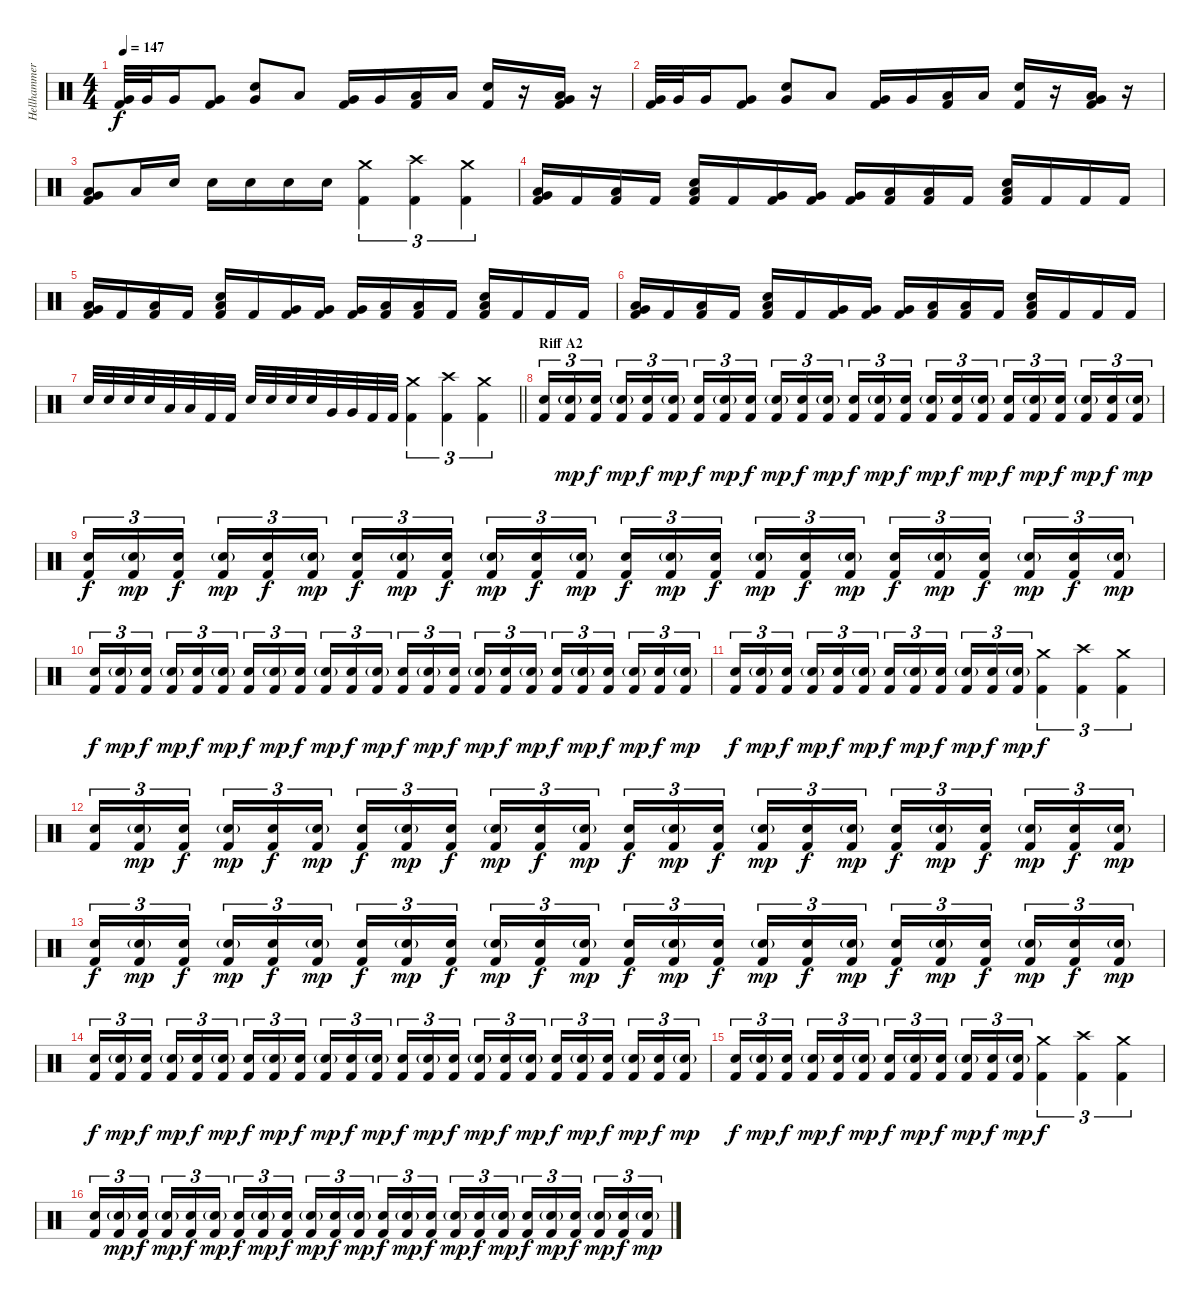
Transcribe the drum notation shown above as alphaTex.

\track ("Hellhammer" "Hellhammer") {instrument percussion}
\staff {score}
\articulation defaults
\ts (4 4)
\tempo 147
\clef neutral
\ks c
("Very Low Tom (hit)" "Kick (hit) 2").32{dy f} "Very Low Tom (hit)".32 "Very Low Tom (hit)".16 ("Very Low Tom (hit)" "Kick (hit) 2").8 ("Very Low Tom (hit)" "Electric Snare (hit)").8 "Low Floor Tom (hit)".8 ("Very Low Tom (hit)" "Kick (hit) 2").16 "Very Low Tom (hit)".16 ("Low Floor Tom (hit)" "Kick (hit) 2").16 "Low Floor Tom (hit)".16 ("Electric Snare (hit)" "Kick (hit) 2").16 r.16 ("Very Low Tom (hit)" "Low Floor Tom (hit)" "Kick (hit) 2").16 r.16 |
("Very Low Tom (hit)" "Kick (hit) 2").32 "Very Low Tom (hit)".32 "Very Low Tom (hit)".16 ("Very Low Tom (hit)" "Kick (hit) 2").8 ("Very Low Tom (hit)" "Electric Snare (hit)").8 "Low Floor Tom (hit)".8 ("Very Low Tom (hit)" "Kick (hit) 2").16 "Very Low Tom (hit)".16 ("Low Floor Tom (hit)" "Kick (hit) 2").16 "Low Floor Tom (hit)".16 ("Electric Snare (hit)" "Kick (hit) 2").16 r.16 ("Very Low Tom (hit)" "Low Floor Tom (hit)" "Kick (hit) 2").16 r.16 |
("Very Low Tom (hit)" "Low Floor Tom (hit)" "Kick (hit) 2").8 "Low Floor Tom (hit)".16 "Electric Snare (hit)".16 "Electric Snare (hit)".16 "Electric Snare (hit)".16 "Electric Snare (hit)".16 "Electric Snare (hit)".16 ("Crash medium (hit)" "Kick (hit) 2").4{tu (3 2)} ("Crash high (hit)" "Kick (hit) 2").4{tu (3 2)} ("Crash medium (hit)" "Kick (hit) 2").4{tu (3 2)} |
("Very Low Tom (hit)" "Low Floor Tom (hit)" "Kick (hit) 2").16 "Kick (hit) 2".16 ("Low Floor Tom (hit)" "Kick (hit) 2").16 "Kick (hit) 2".16 ("Low Floor Tom (hit)" "Electric Snare (hit)" "Kick (hit) 2").16 "Kick (hit) 2".16 ("Very Low Tom (hit)" "Kick (hit) 2").16 ("Very Low Tom (hit)" "Kick (hit) 2").16 ("Very Low Tom (hit)" "Kick (hit) 2").16 ("Low Floor Tom (hit)" "Kick (hit) 2").16 ("Low Floor Tom (hit)" "Kick (hit) 2").16 "Kick (hit) 2".16 ("Low Floor Tom (hit)" "Electric Snare (hit)" "Kick (hit) 2").16 "Kick (hit) 2".16 "Kick (hit) 2".16 "Kick (hit) 2".16 |
("Very Low Tom (hit)" "Low Floor Tom (hit)" "Kick (hit) 2").16 "Kick (hit) 2".16 ("Low Floor Tom (hit)" "Kick (hit) 2").16 "Kick (hit) 2".16 ("Low Floor Tom (hit)" "Electric Snare (hit)" "Kick (hit) 2").16 "Kick (hit) 2".16 ("Very Low Tom (hit)" "Kick (hit) 2").16 ("Very Low Tom (hit)" "Kick (hit) 2").16 ("Very Low Tom (hit)" "Kick (hit) 2").16 ("Low Floor Tom (hit)" "Kick (hit) 2").16 ("Low Floor Tom (hit)" "Kick (hit) 2").16 "Kick (hit) 2".16 ("Low Floor Tom (hit)" "Electric Snare (hit)" "Kick (hit) 2").16 "Kick (hit) 2".16 "Kick (hit) 2".16 "Kick (hit) 2".16 |
("Very Low Tom (hit)" "Low Floor Tom (hit)" "Kick (hit) 2").16 "Kick (hit) 2".16 ("Low Floor Tom (hit)" "Kick (hit) 2").16 "Kick (hit) 2".16 ("Low Floor Tom (hit)" "Electric Snare (hit)" "Kick (hit) 2").16 "Kick (hit) 2".16 ("Very Low Tom (hit)" "Kick (hit) 2").16 ("Very Low Tom (hit)" "Kick (hit) 2").16 ("Very Low Tom (hit)" "Kick (hit) 2").16 ("Low Floor Tom (hit)" "Kick (hit) 2").16 ("Low Floor Tom (hit)" "Kick (hit) 2").16 "Kick (hit) 2".16 ("Low Floor Tom (hit)" "Electric Snare (hit)" "Kick (hit) 2").16 "Kick (hit) 2".16 "Kick (hit) 2".16 "Kick (hit) 2".16 |
\barLineRight lightlight "Electric Snare (hit)".32 "Electric Snare (hit)".32 "Electric Snare (hit)".32 "Electric Snare (hit)".32 "Low Tom (hit)".32 "Low Tom (hit)".32 "Kick (hit) 2".32 "Kick (hit) 2".32 "Electric Snare (hit)".32 "Electric Snare (hit)".32 "Electric Snare (hit)".32 "Electric Snare (hit)".32 "Very Low Tom (hit)".32 "Very Low Tom (hit)".32 "Kick (hit) 2".32 "Kick (hit) 2".32
("Crash medium (hit)" "Kick (hit) 2").4{tu (3 2)} ("Crash high (hit)" "Kick (hit) 2").4{tu (3 2)} ("Crash medium (hit)" "Kick (hit) 2").4{tu (3 2)} |
\section ("" "Riff A2")
("Electric Snare (hit)" "Kick (hit) 2").16{tu (3 2)} ("Electric Snare (hit)"{g} "Kick (hit) 2").16{tu (3 2) dy mp} ("Electric Snare (hit)" "Kick (hit) 2").16{tu (3 2) dy f beam splitsecondary} ("Electric Snare (hit)"{g} "Kick (hit) 2").16{tu (3 2) dy mp} ("Electric Snare (hit)" "Kick (hit) 2").16{tu (3 2) dy f} ("Electric Snare (hit)"{g} "Kick (hit) 2").16{tu (3 2) dy mp} ("Electric Snare (hit)" "Kick (hit) 2").16{tu (3 2) dy f} ("Electric Snare (hit)"{g} "Kick (hit) 2").16{tu (3 2) dy mp} ("Electric Snare (hit)" "Kick (hit) 2").16{tu (3 2) dy f beam splitsecondary} ("Electric Snare (hit)"{g} "Kick (hit) 2").16{tu (3 2) dy mp} ("Electric Snare (hit)" "Kick (hit) 2").16{tu (3 2) dy f} ("Electric Snare (hit)"{g} "Kick (hit) 2").16{tu (3 2) dy mp} ("Electric Snare (hit)" "Kick (hit) 2").16{tu (3 2) dy f} ("Electric Snare (hit)"{g} "Kick (hit) 2").16{tu (3 2) dy mp} ("Electric Snare (hit)" "Kick (hit) 2").16{tu (3 2) dy f beam splitsecondary} ("Electric Snare (hit)"{g} "Kick (hit) 2").16{tu (3 2) dy mp} ("Electric Snare (hit)" "Kick (hit) 2").16{tu (3 2) dy f} ("Electric Snare (hit)"{g} "Kick (hit) 2").16{tu (3 2) dy mp} ("Electric Snare (hit)" "Kick (hit) 2").16{tu (3 2) dy f} ("Electric Snare (hit)"{g} "Kick (hit) 2").16{tu (3 2) dy mp} ("Electric Snare (hit)" "Kick (hit) 2").16{tu (3 2) dy f beam splitsecondary} ("Electric Snare (hit)"{g} "Kick (hit) 2").16{tu (3 2) dy mp} ("Electric Snare (hit)" "Kick (hit) 2").16{tu (3 2) dy f} ("Electric Snare (hit)"{g} "Kick (hit) 2").16{tu (3 2) dy mp} |
("Electric Snare (hit)" "Kick (hit) 2").16{tu (3 2) dy f} ("Electric Snare (hit)"{g} "Kick (hit) 2").16{tu (3 2) dy mp} ("Electric Snare (hit)" "Kick (hit) 2").16{tu (3 2) dy f beam splitsecondary} ("Electric Snare (hit)"{g} "Kick (hit) 2").16{tu (3 2) dy mp} ("Electric Snare (hit)" "Kick (hit) 2").16{tu (3 2) dy f} ("Electric Snare (hit)"{g} "Kick (hit) 2").16{tu (3 2) dy mp} ("Electric Snare (hit)" "Kick (hit) 2").16{tu (3 2) dy f} ("Electric Snare (hit)"{g} "Kick (hit) 2").16{tu (3 2) dy mp} ("Electric Snare (hit)" "Kick (hit) 2").16{tu (3 2) dy f beam splitsecondary} ("Electric Snare (hit)"{g} "Kick (hit) 2").16{tu (3 2) dy mp} ("Electric Snare (hit)" "Kick (hit) 2").16{tu (3 2) dy f} ("Electric Snare (hit)"{g} "Kick (hit) 2").16{tu (3 2) dy mp} ("Electric Snare (hit)" "Kick (hit) 2").16{tu (3 2) dy f} ("Electric Snare (hit)"{g} "Kick (hit) 2").16{tu (3 2) dy mp} ("Electric Snare (hit)" "Kick (hit) 2").16{tu (3 2) dy f beam splitsecondary} ("Electric Snare (hit)"{g} "Kick (hit) 2").16{tu (3 2) dy mp} ("Electric Snare (hit)" "Kick (hit) 2").16{tu (3 2) dy f} ("Electric Snare (hit)"{g} "Kick (hit) 2").16{tu (3 2) dy mp} ("Electric Snare (hit)" "Kick (hit) 2").16{tu (3 2) dy f} ("Electric Snare (hit)"{g} "Kick (hit) 2").16{tu (3 2) dy mp} ("Electric Snare (hit)" "Kick (hit) 2").16{tu (3 2) dy f beam splitsecondary} ("Electric Snare (hit)"{g} "Kick (hit) 2").16{tu (3 2) dy mp} ("Electric Snare (hit)" "Kick (hit) 2").16{tu (3 2) dy f} ("Electric Snare (hit)"{g} "Kick (hit) 2").16{tu (3 2) dy mp} |
("Electric Snare (hit)" "Kick (hit) 2").16{tu (3 2) dy f} ("Electric Snare (hit)"{g} "Kick (hit) 2").16{tu (3 2) dy mp} ("Electric Snare (hit)" "Kick (hit) 2").16{tu (3 2) dy f beam splitsecondary} ("Electric Snare (hit)"{g} "Kick (hit) 2").16{tu (3 2) dy mp} ("Electric Snare (hit)" "Kick (hit) 2").16{tu (3 2) dy f} ("Electric Snare (hit)"{g} "Kick (hit) 2").16{tu (3 2) dy mp} ("Electric Snare (hit)" "Kick (hit) 2").16{tu (3 2) dy f} ("Electric Snare (hit)"{g} "Kick (hit) 2").16{tu (3 2) dy mp} ("Electric Snare (hit)" "Kick (hit) 2").16{tu (3 2) dy f beam splitsecondary} ("Electric Snare (hit)"{g} "Kick (hit) 2").16{tu (3 2) dy mp} ("Electric Snare (hit)" "Kick (hit) 2").16{tu (3 2) dy f} ("Electric Snare (hit)"{g} "Kick (hit) 2").16{tu (3 2) dy mp} ("Electric Snare (hit)" "Kick (hit) 2").16{tu (3 2) dy f} ("Electric Snare (hit)"{g} "Kick (hit) 2").16{tu (3 2) dy mp} ("Electric Snare (hit)" "Kick (hit) 2").16{tu (3 2) dy f beam splitsecondary} ("Electric Snare (hit)"{g} "Kick (hit) 2").16{tu (3 2) dy mp} ("Electric Snare (hit)" "Kick (hit) 2").16{tu (3 2) dy f} ("Electric Snare (hit)"{g} "Kick (hit) 2").16{tu (3 2) dy mp} ("Electric Snare (hit)" "Kick (hit) 2").16{tu (3 2) dy f} ("Electric Snare (hit)"{g} "Kick (hit) 2").16{tu (3 2) dy mp} ("Electric Snare (hit)" "Kick (hit) 2").16{tu (3 2) dy f beam splitsecondary} ("Electric Snare (hit)"{g} "Kick (hit) 2").16{tu (3 2) dy mp} ("Electric Snare (hit)" "Kick (hit) 2").16{tu (3 2) dy f} ("Electric Snare (hit)"{g} "Kick (hit) 2").16{tu (3 2) dy mp} |
("Electric Snare (hit)" "Kick (hit) 2").16{tu (3 2) dy f} ("Electric Snare (hit)"{g} "Kick (hit) 2").16{tu (3 2) dy mp} ("Electric Snare (hit)" "Kick (hit) 2").16{tu (3 2) dy f beam splitsecondary} ("Electric Snare (hit)"{g} "Kick (hit) 2").16{tu (3 2) dy mp} ("Electric Snare (hit)" "Kick (hit) 2").16{tu (3 2) dy f} ("Electric Snare (hit)"{g} "Kick (hit) 2").16{tu (3 2) dy mp} ("Electric Snare (hit)" "Kick (hit) 2").16{tu (3 2) dy f} ("Electric Snare (hit)"{g} "Kick (hit) 2").16{tu (3 2) dy mp} ("Electric Snare (hit)" "Kick (hit) 2").16{tu (3 2) dy f beam splitsecondary} ("Electric Snare (hit)"{g} "Kick (hit) 2").16{tu (3 2) dy mp} ("Electric Snare (hit)" "Kick (hit) 2").16{tu (3 2) dy f} ("Electric Snare (hit)"{g} "Kick (hit) 2").16{tu (3 2) dy mp} ("Crash medium (hit)" "Kick (hit) 2").4{tu (3 2) dy f} ("Crash high (hit)" "Kick (hit) 2").4{tu (3 2)} ("Crash medium (hit)" "Kick (hit) 2").4{tu (3 2)} |
("Electric Snare (hit)" "Kick (hit) 2").16{tu (3 2)} ("Electric Snare (hit)"{g} "Kick (hit) 2").16{tu (3 2) dy mp} ("Electric Snare (hit)" "Kick (hit) 2").16{tu (3 2) dy f beam splitsecondary} ("Electric Snare (hit)"{g} "Kick (hit) 2").16{tu (3 2) dy mp} ("Electric Snare (hit)" "Kick (hit) 2").16{tu (3 2) dy f} ("Electric Snare (hit)"{g} "Kick (hit) 2").16{tu (3 2) dy mp} ("Electric Snare (hit)" "Kick (hit) 2").16{tu (3 2) dy f} ("Electric Snare (hit)"{g} "Kick (hit) 2").16{tu (3 2) dy mp} ("Electric Snare (hit)" "Kick (hit) 2").16{tu (3 2) dy f beam splitsecondary} ("Electric Snare (hit)"{g} "Kick (hit) 2").16{tu (3 2) dy mp} ("Electric Snare (hit)" "Kick (hit) 2").16{tu (3 2) dy f} ("Electric Snare (hit)"{g} "Kick (hit) 2").16{tu (3 2) dy mp} ("Electric Snare (hit)" "Kick (hit) 2").16{tu (3 2) dy f} ("Electric Snare (hit)"{g} "Kick (hit) 2").16{tu (3 2) dy mp} ("Electric Snare (hit)" "Kick (hit) 2").16{tu (3 2) dy f beam splitsecondary} ("Electric Snare (hit)"{g} "Kick (hit) 2").16{tu (3 2) dy mp} ("Electric Snare (hit)" "Kick (hit) 2").16{tu (3 2) dy f} ("Electric Snare (hit)"{g} "Kick (hit) 2").16{tu (3 2) dy mp} ("Electric Snare (hit)" "Kick (hit) 2").16{tu (3 2) dy f} ("Electric Snare (hit)"{g} "Kick (hit) 2").16{tu (3 2) dy mp} ("Electric Snare (hit)" "Kick (hit) 2").16{tu (3 2) dy f beam splitsecondary} ("Electric Snare (hit)"{g} "Kick (hit) 2").16{tu (3 2) dy mp} ("Electric Snare (hit)" "Kick (hit) 2").16{tu (3 2) dy f} ("Electric Snare (hit)"{g} "Kick (hit) 2").16{tu (3 2) dy mp} |
("Electric Snare (hit)" "Kick (hit) 2").16{tu (3 2) dy f} ("Electric Snare (hit)"{g} "Kick (hit) 2").16{tu (3 2) dy mp} ("Electric Snare (hit)" "Kick (hit) 2").16{tu (3 2) dy f beam splitsecondary} ("Electric Snare (hit)"{g} "Kick (hit) 2").16{tu (3 2) dy mp} ("Electric Snare (hit)" "Kick (hit) 2").16{tu (3 2) dy f} ("Electric Snare (hit)"{g} "Kick (hit) 2").16{tu (3 2) dy mp} ("Electric Snare (hit)" "Kick (hit) 2").16{tu (3 2) dy f} ("Electric Snare (hit)"{g} "Kick (hit) 2").16{tu (3 2) dy mp} ("Electric Snare (hit)" "Kick (hit) 2").16{tu (3 2) dy f beam splitsecondary} ("Electric Snare (hit)"{g} "Kick (hit) 2").16{tu (3 2) dy mp} ("Electric Snare (hit)" "Kick (hit) 2").16{tu (3 2) dy f} ("Electric Snare (hit)"{g} "Kick (hit) 2").16{tu (3 2) dy mp} ("Electric Snare (hit)" "Kick (hit) 2").16{tu (3 2) dy f} ("Electric Snare (hit)"{g} "Kick (hit) 2").16{tu (3 2) dy mp} ("Electric Snare (hit)" "Kick (hit) 2").16{tu (3 2) dy f beam splitsecondary} ("Electric Snare (hit)"{g} "Kick (hit) 2").16{tu (3 2) dy mp} ("Electric Snare (hit)" "Kick (hit) 2").16{tu (3 2) dy f} ("Electric Snare (hit)"{g} "Kick (hit) 2").16{tu (3 2) dy mp} ("Electric Snare (hit)" "Kick (hit) 2").16{tu (3 2) dy f} ("Electric Snare (hit)"{g} "Kick (hit) 2").16{tu (3 2) dy mp} ("Electric Snare (hit)" "Kick (hit) 2").16{tu (3 2) dy f beam splitsecondary} ("Electric Snare (hit)"{g} "Kick (hit) 2").16{tu (3 2) dy mp} ("Electric Snare (hit)" "Kick (hit) 2").16{tu (3 2) dy f} ("Electric Snare (hit)"{g} "Kick (hit) 2").16{tu (3 2) dy mp} |
("Electric Snare (hit)" "Kick (hit) 2").16{tu (3 2) dy f} ("Electric Snare (hit)"{g} "Kick (hit) 2").16{tu (3 2) dy mp} ("Electric Snare (hit)" "Kick (hit) 2").16{tu (3 2) dy f beam splitsecondary} ("Electric Snare (hit)"{g} "Kick (hit) 2").16{tu (3 2) dy mp} ("Electric Snare (hit)" "Kick (hit) 2").16{tu (3 2) dy f} ("Electric Snare (hit)"{g} "Kick (hit) 2").16{tu (3 2) dy mp} ("Electric Snare (hit)" "Kick (hit) 2").16{tu (3 2) dy f} ("Electric Snare (hit)"{g} "Kick (hit) 2").16{tu (3 2) dy mp} ("Electric Snare (hit)" "Kick (hit) 2").16{tu (3 2) dy f beam splitsecondary} ("Electric Snare (hit)"{g} "Kick (hit) 2").16{tu (3 2) dy mp} ("Electric Snare (hit)" "Kick (hit) 2").16{tu (3 2) dy f} ("Electric Snare (hit)"{g} "Kick (hit) 2").16{tu (3 2) dy mp} ("Electric Snare (hit)" "Kick (hit) 2").16{tu (3 2) dy f} ("Electric Snare (hit)"{g} "Kick (hit) 2").16{tu (3 2) dy mp} ("Electric Snare (hit)" "Kick (hit) 2").16{tu (3 2) dy f beam splitsecondary} ("Electric Snare (hit)"{g} "Kick (hit) 2").16{tu (3 2) dy mp} ("Electric Snare (hit)" "Kick (hit) 2").16{tu (3 2) dy f} ("Electric Snare (hit)"{g} "Kick (hit) 2").16{tu (3 2) dy mp} ("Electric Snare (hit)" "Kick (hit) 2").16{tu (3 2) dy f} ("Electric Snare (hit)"{g} "Kick (hit) 2").16{tu (3 2) dy mp} ("Electric Snare (hit)" "Kick (hit) 2").16{tu (3 2) dy f beam splitsecondary} ("Electric Snare (hit)"{g} "Kick (hit) 2").16{tu (3 2) dy mp} ("Electric Snare (hit)" "Kick (hit) 2").16{tu (3 2) dy f} ("Electric Snare (hit)"{g} "Kick (hit) 2").16{tu (3 2) dy mp} |
("Electric Snare (hit)" "Kick (hit) 2").16{tu (3 2) dy f} ("Electric Snare (hit)"{g} "Kick (hit) 2").16{tu (3 2) dy mp} ("Electric Snare (hit)" "Kick (hit) 2").16{tu (3 2) dy f beam splitsecondary} ("Electric Snare (hit)"{g} "Kick (hit) 2").16{tu (3 2) dy mp} ("Electric Snare (hit)" "Kick (hit) 2").16{tu (3 2) dy f} ("Electric Snare (hit)"{g} "Kick (hit) 2").16{tu (3 2) dy mp} ("Electric Snare (hit)" "Kick (hit) 2").16{tu (3 2) dy f} ("Electric Snare (hit)"{g} "Kick (hit) 2").16{tu (3 2) dy mp} ("Electric Snare (hit)" "Kick (hit) 2").16{tu (3 2) dy f beam splitsecondary} ("Electric Snare (hit)"{g} "Kick (hit) 2").16{tu (3 2) dy mp} ("Electric Snare (hit)" "Kick (hit) 2").16{tu (3 2) dy f} ("Electric Snare (hit)"{g} "Kick (hit) 2").16{tu (3 2) dy mp} ("Crash medium (hit)" "Kick (hit) 2").4{tu (3 2) dy f} ("Crash high (hit)" "Kick (hit) 2").4{tu (3 2)} ("Crash medium (hit)" "Kick (hit) 2").4{tu (3 2)} |
("Electric Snare (hit)" "Kick (hit) 2").16{tu (3 2)} ("Electric Snare (hit)"{g} "Kick (hit) 2").16{tu (3 2) dy mp} ("Electric Snare (hit)" "Kick (hit) 2").16{tu (3 2) dy f beam splitsecondary} ("Electric Snare (hit)"{g} "Kick (hit) 2").16{tu (3 2) dy mp} ("Electric Snare (hit)" "Kick (hit) 2").16{tu (3 2) dy f} ("Electric Snare (hit)"{g} "Kick (hit) 2").16{tu (3 2) dy mp} ("Electric Snare (hit)" "Kick (hit) 2").16{tu (3 2) dy f} ("Electric Snare (hit)"{g} "Kick (hit) 2").16{tu (3 2) dy mp} ("Electric Snare (hit)" "Kick (hit) 2").16{tu (3 2) dy f beam splitsecondary} ("Electric Snare (hit)"{g} "Kick (hit) 2").16{tu (3 2) dy mp} ("Electric Snare (hit)" "Kick (hit) 2").16{tu (3 2) dy f} ("Electric Snare (hit)"{g} "Kick (hit) 2").16{tu (3 2) dy mp} ("Electric Snare (hit)" "Kick (hit) 2").16{tu (3 2) dy f} ("Electric Snare (hit)"{g} "Kick (hit) 2").16{tu (3 2) dy mp} ("Electric Snare (hit)" "Kick (hit) 2").16{tu (3 2) dy f beam splitsecondary} ("Electric Snare (hit)"{g} "Kick (hit) 2").16{tu (3 2) dy mp} ("Electric Snare (hit)" "Kick (hit) 2").16{tu (3 2) dy f} ("Electric Snare (hit)"{g} "Kick (hit) 2").16{tu (3 2) dy mp} ("Electric Snare (hit)" "Kick (hit) 2").16{tu (3 2) dy f} ("Electric Snare (hit)"{g} "Kick (hit) 2").16{tu (3 2) dy mp} ("Electric Snare (hit)" "Kick (hit) 2").16{tu (3 2) dy f beam splitsecondary} ("Electric Snare (hit)"{g} "Kick (hit) 2").16{tu (3 2) dy mp} ("Electric Snare (hit)" "Kick (hit) 2").16{tu (3 2) dy f} ("Electric Snare (hit)"{g} "Kick (hit) 2").16{tu (3 2) dy mp}
